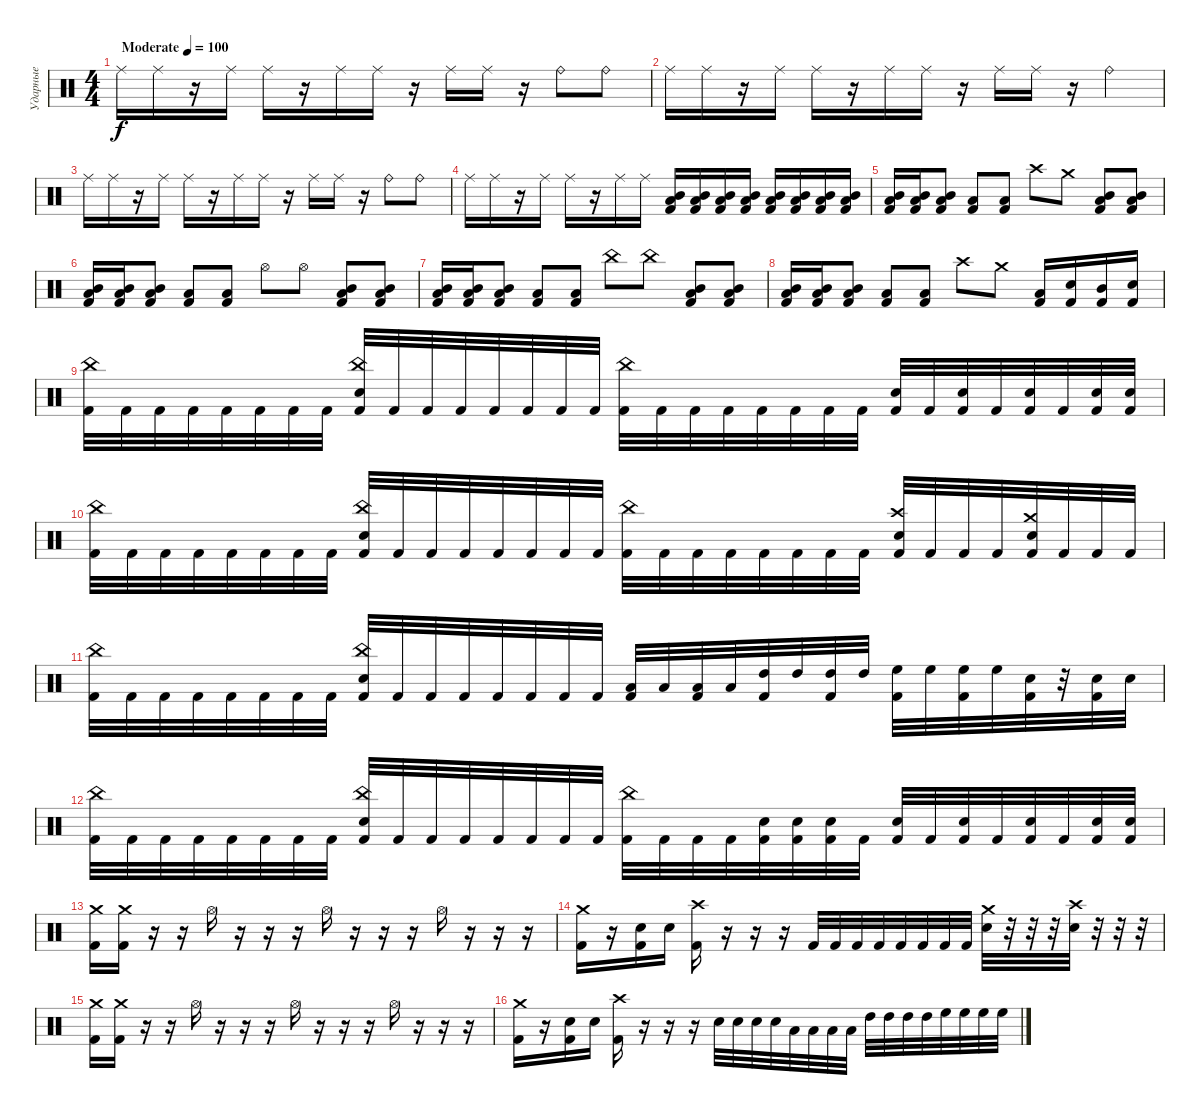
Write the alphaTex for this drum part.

\track ("Ударные" "Ударные") {instrument percussion}
\staff {score}
\articulation defaults
\ts (4 4)
\tempo (100 "Moderate")
\clef neutral
\ks c "Ride (middle)".16{dy f} "Ride (middle)".16
r.16 "Ride (middle)".16 "Ride (middle)".16 r.16 "Ride (middle)".16 "Ride (middle)".16 r.16 "Ride (middle)".16 "Ride (middle)".16 r.16 "Ride (bell)".8 "Ride (bell)".8 |
"Ride (middle)".16 "Ride (middle)".16 r.16 "Ride (middle)".16 "Ride (middle)".16 r.16 "Ride (middle)".16 "Ride (middle)".16 r.16 "Ride (middle)".16 "Ride (middle)".16 r.16 "Ride (bell)".4 |
"Ride (middle)".16 "Ride (middle)".16 r.16 "Ride (middle)".16 "Ride (middle)".16 r.16 "Ride (middle)".16 "Ride (middle)".16 r.16 "Ride (middle)".16 "Ride (middle)".16 r.16 "Ride (bell)".8 "Ride (bell)".8 |
"Ride (middle)".16 "Ride (middle)".16 r.16 "Ride (middle)".16 "Ride (middle)".16 r.16 "Ride (middle)".16 "Ride (middle)".16 ("Low Tom (hit)" "Mid Tom (hit)" "Kick (hit) 2").16{volume 2} ("Low Tom (hit)" "Mid Tom (hit)" "Kick (hit) 2").16{volume 4} ("Low Tom (hit)" "Mid Tom (hit)" "Kick (hit) 2").16{volume 6} ("Low Tom (hit)" "Mid Tom (hit)" "Kick (hit) 2").16{volume 8} ("Low Tom (hit)" "Mid Tom (hit)" "Kick (hit) 2").16{volume 10} ("Low Tom (hit)" "Mid Tom (hit)" "Kick (hit) 2").16{volume 12} ("Low Tom (hit)" "Mid Tom (hit)" "Kick (hit) 2").16{volume 14} ("Low Tom (hit)" "Mid Tom (hit)" "Kick (hit) 2").16{volume 16} |
("Low Tom (hit)" "Mid Tom (hit)" "Kick (hit) 2").16 ("Low Tom (hit)" "Mid Tom (hit)" "Kick (hit) 2").16 ("Low Tom (hit)" "Mid Tom (hit)" "Kick (hit) 2").8 ("Low Floor Tom (hit)" "Kick (hit) 2").8 ("Low Floor Tom (hit)" "Kick (hit) 2").8 "Crash high (hit)".8 "Crash medium (hit)".8 ("Low Tom (hit)" "Mid Tom (hit)" "Kick (hit) 2").8 ("Low Tom (hit)" "Mid Tom (hit)" "Kick (hit) 2").8 |
("Low Tom (hit)" "Mid Tom (hit)" "Kick (hit) 2").16 ("Low Tom (hit)" "Mid Tom (hit)" "Kick (hit) 2").16 ("Low Tom (hit)" "Mid Tom (hit)" "Kick (hit) 2").8 ("Low Floor Tom (hit)" "Kick (hit) 2").8 ("Low Floor Tom (hit)" "Kick (hit) 2").8 "Hi-Hat (open)".8 "Hi-Hat (open)".8 ("Low Tom (hit)" "Mid Tom (hit)" "Kick (hit) 2").8 ("Low Tom (hit)" "Mid Tom (hit)" "Kick (hit) 2").8 |
("Low Tom (hit)" "Mid Tom (hit)" "Kick (hit) 2").16 ("Low Tom (hit)" "Mid Tom (hit)" "Kick (hit) 2").16 ("Low Tom (hit)" "Mid Tom (hit)" "Kick (hit) 2").8 ("Low Floor Tom (hit)" "Kick (hit) 2").8 ("Low Floor Tom (hit)" "Kick (hit) 2").8 "China (hit)".8 "China (hit)".8 ("Low Tom (hit)" "Mid Tom (hit)" "Kick (hit) 2").8 ("Low Tom (hit)" "Mid Tom (hit)" "Kick (hit) 2").8 |
("Low Tom (hit)" "Mid Tom (hit)" "Kick (hit) 2").16 ("Low Tom (hit)" "Mid Tom (hit)" "Kick (hit) 2").16 ("Low Tom (hit)" "Mid Tom (hit)" "Kick (hit) 2").8 ("Low Floor Tom (hit)" "Kick (hit) 2").8 ("Low Floor Tom (hit)" "Kick (hit) 2").8 "Crash high (hit)".8 "Crash medium (hit)".8 ("Low Tom (hit)" "Kick (hit) 2").16 ("Snare (hit) 2" "Kick (hit) 2").16 ("Mid Tom (hit)" "Kick (hit) 2").16 ("Snare (hit) 2" "Kick (hit) 2").16 |
("China (hit)" "Kick (hit) 2").32 "Kick (hit) 2".32 "Kick (hit) 2".32 "Kick (hit) 2".32 "Kick (hit) 2".32 "Kick (hit) 2".32 "Kick (hit) 2".32 "Kick (hit) 2".32 ("China (hit)" "Snare (hit) 2" "Kick (hit) 2").32 "Kick (hit) 2".32 "Kick (hit) 2".32 "Kick (hit) 2".32 "Kick (hit) 2".32 "Kick (hit) 2".32 "Kick (hit) 2".32 "Kick (hit) 2".32 ("China (hit)" "Kick (hit) 2").32 "Kick (hit) 2".32 "Kick (hit) 2".32 "Kick (hit) 2".32 "Kick (hit) 2".32 "Kick (hit) 2".32 "Kick (hit) 2".32 "Kick (hit) 2".32 ("Snare (hit) 2" "Kick (hit) 2").32 "Kick (hit) 2".32 ("Snare (hit) 2" "Kick (hit) 2").32 "Kick (hit) 2".32 ("Snare (hit) 2" "Kick (hit) 2").32 "Kick (hit) 2".32 ("Snare (hit) 2" "Kick (hit) 2").32 ("Snare (hit) 2" "Kick (hit) 2").32 |
("China (hit)" "Kick (hit) 2").32 "Kick (hit) 2".32 "Kick (hit) 2".32 "Kick (hit) 2".32 "Kick (hit) 2".32 "Kick (hit) 2".32 "Kick (hit) 2".32 "Kick (hit) 2".32 ("China (hit)" "Snare (hit) 2" "Kick (hit) 2").32 "Kick (hit) 2".32 "Kick (hit) 2".32 "Kick (hit) 2".32 "Kick (hit) 2".32 "Kick (hit) 2".32 "Kick (hit) 2".32 "Kick (hit) 2".32 ("China (hit)" "Kick (hit) 2").32 "Kick (hit) 2".32 "Kick (hit) 2".32 "Kick (hit) 2".32 "Kick (hit) 2".32 "Kick (hit) 2".32 "Kick (hit) 2".32 "Kick (hit) 2".32 ("Crash high (hit)" "Snare (hit) 2" "Kick (hit) 2").32 "Kick (hit) 2".32 "Kick (hit) 2".32 "Kick (hit) 2".32 ("Crash medium (hit)" "Snare (hit) 2" "Kick (hit) 2").32 "Kick (hit) 2".32 "Kick (hit) 2".32 "Kick (hit) 2".32 |
("China (hit)" "Kick (hit) 2").32 "Kick (hit) 2".32 "Kick (hit) 2".32 "Kick (hit) 2".32 "Kick (hit) 2".32 "Kick (hit) 2".32 "Kick (hit) 2".32 "Kick (hit) 2".32 ("China (hit)" "Snare (hit) 2" "Kick (hit) 2").32 "Kick (hit) 2".32 "Kick (hit) 2".32 "Kick (hit) 2".32 "Kick (hit) 2".32 "Kick (hit) 2".32 "Kick (hit) 2".32 "Kick (hit) 2".32 ("Low Tom (hit)" "Kick (hit) 2").32 "Low Tom (hit)".32 ("Low Tom (hit)" "Kick (hit) 2").32 "Low Tom (hit)".32 ("High Tom (hit)" "Kick (hit) 2").32 "High Tom (hit)".32 ("High Tom (hit)" "Kick (hit) 2").32 "High Tom (hit)".32 ("High Floor Tom (hit)" "Kick (hit) 2").32 "High Floor Tom (hit)".32 ("High Floor Tom (hit)" "Kick (hit) 2").32 "High Floor Tom (hit)".32 ("Snare (hit) 2" "Kick (hit) 2").32 r.32 ("Snare (hit) 2" "Kick (hit) 2").32 "Snare (hit) 2".32 |
("China (hit)" "Kick (hit) 2").32 "Kick (hit) 2".32 "Kick (hit) 2".32 "Kick (hit) 2".32 "Kick (hit) 2".32 "Kick (hit) 2".32 "Kick (hit) 2".32 "Kick (hit) 2".32 ("China (hit)" "Snare (hit) 2" "Kick (hit) 2").32 "Kick (hit) 2".32 "Kick (hit) 2".32 "Kick (hit) 2".32 "Kick (hit) 2".32 "Kick (hit) 2".32 "Kick (hit) 2".32 "Kick (hit) 2".32 ("China (hit)" "Kick (hit) 2").32 "Kick (hit) 2".32 "Kick (hit) 2".32 "Kick (hit) 2".32 ("Snare (hit) 2" "Kick (hit) 2").32 ("Snare (hit) 2" "Kick (hit) 2").32 ("Snare (hit) 2" "Kick (hit) 2").32 "Kick (hit) 2".32 ("Snare (hit) 2" "Kick (hit) 2").32 "Kick (hit) 2".32 ("Snare (hit) 2" "Kick (hit) 2").32 "Kick (hit) 2".32 ("Snare (hit) 2" "Kick (hit) 2").32 "Kick (hit) 2".32 ("Snare (hit) 2" "Kick (hit) 2").32 ("Snare (hit) 2" "Kick (hit) 2").32 |
("Crash medium (hit)" "Kick (hit) 2").16 ("Crash medium (hit)" "Kick (hit) 2").16 r.16 r.16 "Hi-Hat (open)".16 r.16 r.16 r.16 "Hi-Hat (open)".16 r.16 r.16 r.16 "Hi-Hat (open)".16 r.16 r.16 r.16 |
("Crash medium (hit)" "Kick (hit) 2").16 r.16 ("Snare (hit) 2" "Kick (hit) 2").16 "Snare (hit) 2".16 ("Crash high (hit)" "Kick (hit) 2").16 r.16 r.16 r.16 "Kick (hit) 2".32 "Kick (hit) 2".32 "Kick (hit) 2".32 "Kick (hit) 2".32 "Kick (hit) 2".32 "Kick (hit) 2".32 "Kick (hit) 2".32 "Kick (hit) 2".32 ("Crash medium (hit)" "Snare (hit) 2").32 r.32 r.32 r.32 ("Snare (hit) 2" "Crash high (hit)").32 r.32 r.32 r.32 |
("Crash medium (hit)" "Kick (hit) 2").16 ("Crash medium (hit)" "Kick (hit) 2").16 r.16 r.16 "Hi-Hat (open)".16 r.16 r.16 r.16 "Hi-Hat (open)".16 r.16 r.16 r.16 "Hi-Hat (open)".16 r.16 r.16 r.16 |
("Crash medium (hit)" "Kick (hit) 2").16 r.16 ("Snare (hit) 2" "Kick (hit) 2").16 "Snare (hit) 2".16 ("Crash high (hit)" "Kick (hit) 2").16 r.16 r.16 r.16 "Snare (hit) 2".32 "Snare (hit) 2".32 "Snare (hit) 2".32 "Snare (hit) 2".32 "Low Tom (hit)".32 "Low Tom (hit)".32 "Low Tom (hit)".32 "Low Tom (hit)".32 "High Tom (hit)".32 "High Tom (hit)".32 "High Tom (hit)".32 "High Tom (hit)".32 "High Floor Tom (hit)".32 "High Floor Tom (hit)".32 "High Floor Tom (hit)".32 "High Floor Tom (hit)".32
